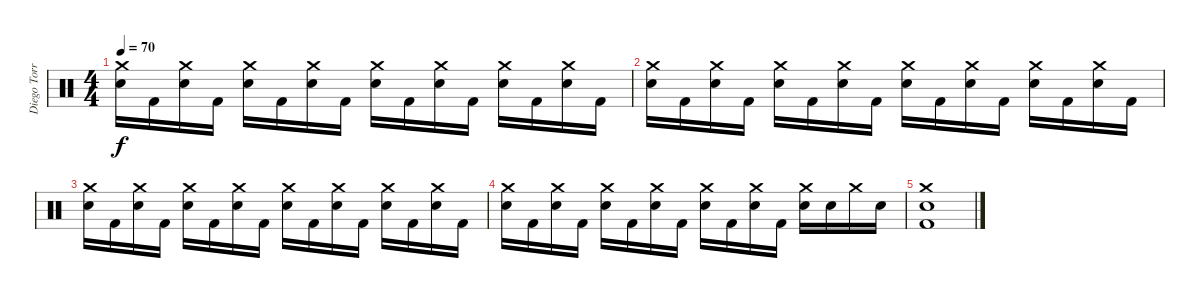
\track ("Diego Torres [Bateria]" "Diego Torr") {instrument percussion}
\staff {score}
\articulation defaults
\ts (4 4)
\tempo 70
\clef neutral
\ks c
("Crash medium (hit)" "Electric Snare (hit)").16{dy f} "Kick (hit) 2".16 ("Crash medium (hit)" "Electric Snare (hit)").16 "Kick (hit) 2".16 ("Crash medium (hit)" "Electric Snare (hit)").16 "Kick (hit) 2".16 ("Crash medium (hit)" "Electric Snare (hit)").16 "Kick (hit) 2".16 ("Crash medium (hit)" "Electric Snare (hit)").16 "Kick (hit) 2".16 ("Crash medium (hit)" "Electric Snare (hit)").16 "Kick (hit) 2".16 ("Crash medium (hit)" "Electric Snare (hit)").16 "Kick (hit) 2".16 ("Crash medium (hit)" "Electric Snare (hit)").16 "Kick (hit) 2".16 |
("Crash medium (hit)" "Electric Snare (hit)").16 "Kick (hit) 2".16 ("Crash medium (hit)" "Electric Snare (hit)").16 "Kick (hit) 2".16 ("Crash medium (hit)" "Electric Snare (hit)").16 "Kick (hit) 2".16 ("Crash medium (hit)" "Electric Snare (hit)").16 "Kick (hit) 2".16 ("Crash medium (hit)" "Electric Snare (hit)").16 "Kick (hit) 2".16 ("Crash medium (hit)" "Electric Snare (hit)").16 "Kick (hit) 2".16 ("Crash medium (hit)" "Electric Snare (hit)").16 "Kick (hit) 2".16 ("Crash medium (hit)" "Electric Snare (hit)").16 "Kick (hit) 2".16 |
("Crash medium (hit)" "Electric Snare (hit)").16 "Kick (hit) 2".16 ("Crash medium (hit)" "Electric Snare (hit)").16 "Kick (hit) 2".16 ("Crash medium (hit)" "Electric Snare (hit)").16 "Kick (hit) 2".16 ("Crash medium (hit)" "Electric Snare (hit)").16 "Kick (hit) 2".16 ("Crash medium (hit)" "Electric Snare (hit)").16 "Kick (hit) 2".16 ("Crash medium (hit)" "Electric Snare (hit)").16 "Kick (hit) 2".16 ("Crash medium (hit)" "Electric Snare (hit)").16 "Kick (hit) 2".16 ("Crash medium (hit)" "Electric Snare (hit)").16 "Kick (hit) 2".16 |
("Crash medium (hit)" "Electric Snare (hit)").16 "Kick (hit) 2".16 ("Crash medium (hit)" "Electric Snare (hit)").16 "Kick (hit) 2".16 ("Crash medium (hit)" "Electric Snare (hit)").16 "Kick (hit) 2".16 ("Crash medium (hit)" "Electric Snare (hit)").16 "Kick (hit) 2".16 ("Crash medium (hit)" "Electric Snare (hit)").16 "Kick (hit) 2".16 ("Crash medium (hit)" "Electric Snare (hit)").16 "Kick (hit) 2".16 ("Crash medium (hit)" "Electric Snare (hit)").16 "Electric Snare (hit)".16 "Crash medium (hit)".16 "Electric Snare (hit)".16 |
("Crash medium (hit)" "Electric Snare (hit)" "Kick (hit) 2").1
